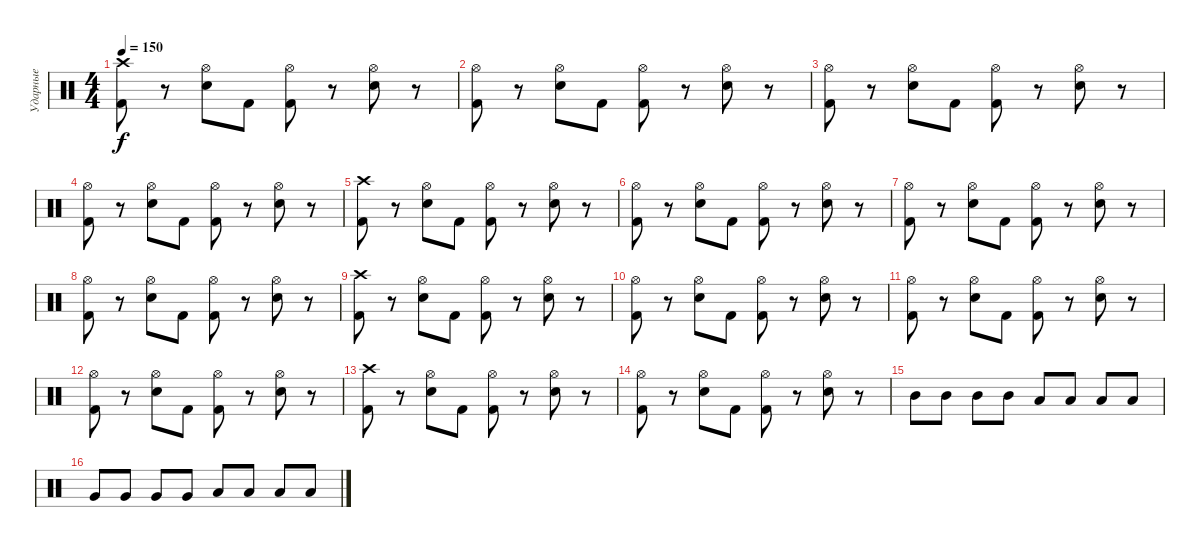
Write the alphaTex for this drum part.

\track ("Ударные" "Ударные") {instrument percussion}
\staff {score}
\articulation defaults
\ts (4 4)
\tempo 150
\clef neutral
\ks c
("Kick (hit) 2" "Crash high (hit)").8{dy f} r.8 ("Hi-Hat (open)" "Snare (hit) 2").8 "Kick (hit) 2".8 ("Hi-Hat (open)" "Kick (hit) 2").8 r.8 ("Hi-Hat (open)" "Snare (hit) 2").8 r.8 |
("Kick (hit) 2" "Hi-Hat (open)").8 r.8 ("Snare (hit) 2" "Hi-Hat (open)").8 "Kick (hit) 2".8 ("Kick (hit) 2" "Hi-Hat (open)").8 r.8 ("Snare (hit) 2" "Hi-Hat (open)").8 r.8 |
("Kick (hit) 2" "Hi-Hat (open)").8 r.8 ("Snare (hit) 2" "Hi-Hat (open)").8 "Kick (hit) 2".8 ("Kick (hit) 2" "Hi-Hat (open)").8 r.8 ("Snare (hit) 2" "Hi-Hat (open)").8 r.8 |
("Kick (hit) 2" "Hi-Hat (open)").8 r.8 ("Snare (hit) 2" "Hi-Hat (open)").8 "Kick (hit) 2".8 ("Kick (hit) 2" "Hi-Hat (open)").8 r.8 ("Snare (hit) 2" "Hi-Hat (open)").8 r.8 |
("Kick (hit) 2" "Crash high (hit)").8 r.8 ("Hi-Hat (open)" "Snare (hit) 2").8 "Kick (hit) 2".8 ("Hi-Hat (open)" "Kick (hit) 2").8 r.8 ("Hi-Hat (open)" "Snare (hit) 2").8 r.8 |
("Kick (hit) 2" "Hi-Hat (open)").8 r.8 ("Snare (hit) 2" "Hi-Hat (open)").8 "Kick (hit) 2".8 ("Kick (hit) 2" "Hi-Hat (open)").8 r.8 ("Snare (hit) 2" "Hi-Hat (open)").8 r.8 |
("Kick (hit) 2" "Hi-Hat (open)").8 r.8 ("Snare (hit) 2" "Hi-Hat (open)").8 "Kick (hit) 2".8 ("Kick (hit) 2" "Hi-Hat (open)").8 r.8 ("Snare (hit) 2" "Hi-Hat (open)").8 r.8 |
("Kick (hit) 2" "Hi-Hat (open)").8 r.8 ("Snare (hit) 2" "Hi-Hat (open)").8 "Kick (hit) 2".8 ("Kick (hit) 2" "Hi-Hat (open)").8 r.8 ("Snare (hit) 2" "Hi-Hat (open)").8 r.8 |
("Kick (hit) 2" "Crash high (hit)").8 r.8 ("Hi-Hat (open)" "Snare (hit) 2").8 "Kick (hit) 2".8 ("Hi-Hat (open)" "Kick (hit) 2").8 r.8 ("Hi-Hat (open)" "Snare (hit) 2").8 r.8 |
("Kick (hit) 2" "Hi-Hat (open)").8 r.8 ("Snare (hit) 2" "Hi-Hat (open)").8 "Kick (hit) 2".8 ("Kick (hit) 2" "Hi-Hat (open)").8 r.8 ("Snare (hit) 2" "Hi-Hat (open)").8 r.8 |
("Kick (hit) 2" "Hi-Hat (open)").8 r.8 ("Snare (hit) 2" "Hi-Hat (open)").8 "Kick (hit) 2".8 ("Kick (hit) 2" "Hi-Hat (open)").8 r.8 ("Snare (hit) 2" "Hi-Hat (open)").8 r.8 |
("Kick (hit) 2" "Hi-Hat (open)").8 r.8 ("Snare (hit) 2" "Hi-Hat (open)").8 "Kick (hit) 2".8 ("Kick (hit) 2" "Hi-Hat (open)").8 r.8 ("Snare (hit) 2" "Hi-Hat (open)").8 r.8 |
("Kick (hit) 2" "Crash high (hit)").8 r.8 ("Hi-Hat (open)" "Snare (hit) 2").8 "Kick (hit) 2".8 ("Hi-Hat (open)" "Kick (hit) 2").8 r.8 ("Hi-Hat (open)" "Snare (hit) 2").8 r.8 |
("Kick (hit) 2" "Hi-Hat (open)").8 r.8 ("Snare (hit) 2" "Hi-Hat (open)").8 "Kick (hit) 2".8 ("Kick (hit) 2" "Hi-Hat (open)").8 r.8 ("Snare (hit) 2" "Hi-Hat (open)").8 r.8 |
"Mid Tom (hit)".8 "Mid Tom (hit)".8 "Mid Tom (hit)".8 "Mid Tom (hit)".8 "Low Tom (hit)".8 "Low Tom (hit)".8 "Low Tom (hit)".8 "Low Tom (hit)".8 |
"Very Low Tom (hit)".8 "Very Low Tom (hit)".8 "Very Low Tom (hit)".8 "Very Low Tom (hit)".8 "Low Floor Tom (hit)".8 "Low Floor Tom (hit)".8 "Low Floor Tom (hit)".8 "Low Floor Tom (hit)".8
